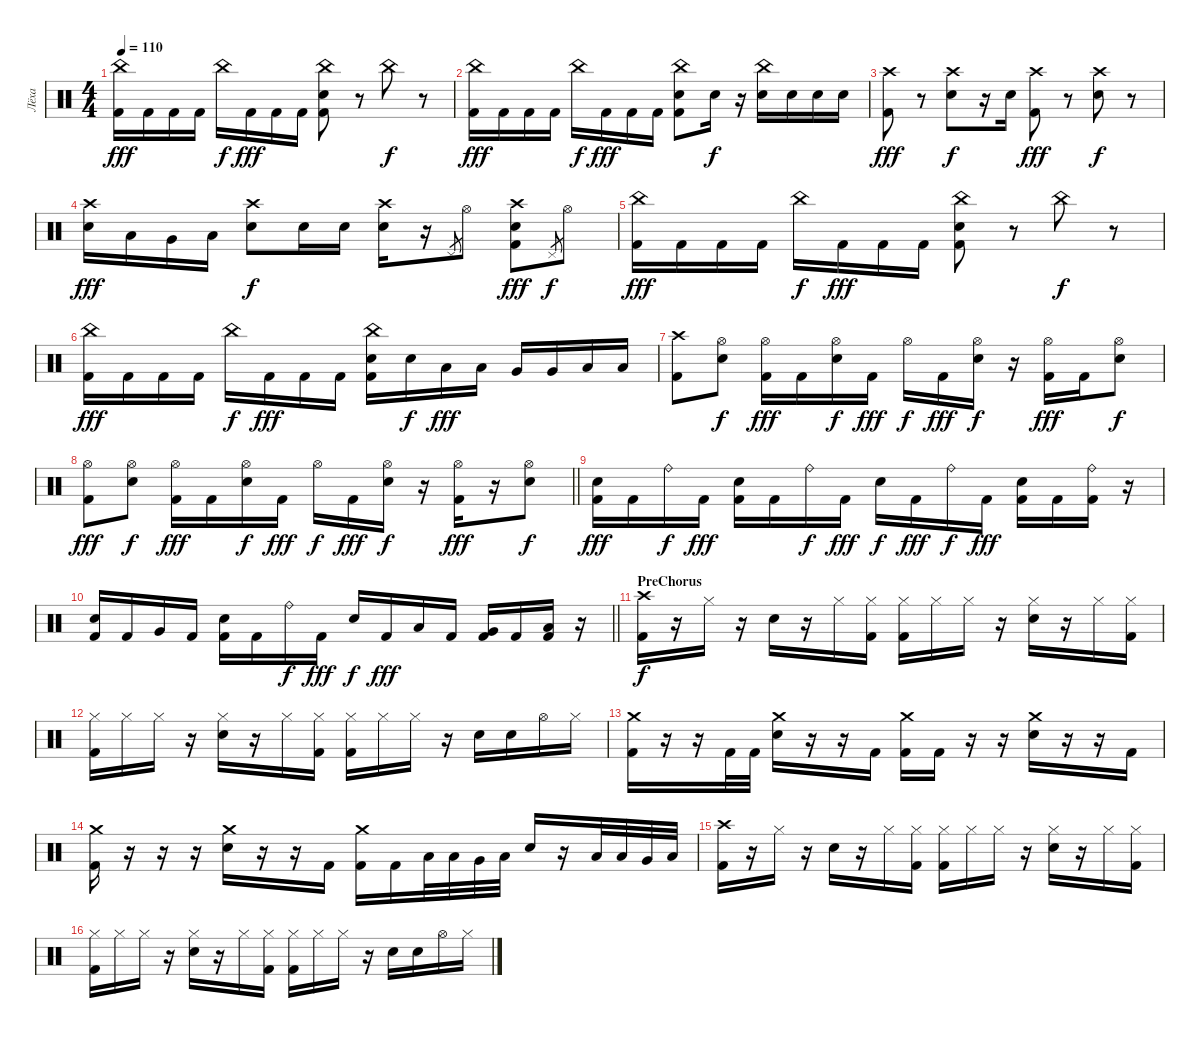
\track ("Лёха" "Лёха") {instrument percussion}
\staff {score}
\articulation defaults
\ts (4 4)
\tempo 110
\clef neutral
\ks c
("China (hit)" "Kick (hit) 2").16{dy fff} "Kick (hit) 2".16 "Kick (hit) 2".16 "Kick (hit) 2".16 "China (hit)".16{dy f} "Kick (hit) 2".16{dy fff} "Kick (hit) 2".16 "Kick (hit) 2".16 ("China (hit)" "Electric Snare (hit)" "Kick (hit) 2").8 r.8 "China (hit)".8{dy f} r.8 |
("China (hit)" "Kick (hit) 2").16{dy fff} "Kick (hit) 2".16 "Kick (hit) 2".16 "Kick (hit) 2".16 "China (hit)".16{dy f} "Kick (hit) 2".16{dy fff} "Kick (hit) 2".16 "Kick (hit) 2".16 ("China (hit)" "Electric Snare (hit)" "Kick (hit) 2").8 "Electric Snare (hit)".16{dy f} r.16 ("China (hit)" "Electric Snare (hit)").16 "Electric Snare (hit)".16 "Electric Snare (hit)".16 "Electric Snare (hit)".16 |
("Crash high (hit)" "Kick (hit) 2").8{dy fff} r.8 ("Crash high (hit)" "Electric Snare (hit)").8{dy f} r.16 "Electric Snare (hit)".16 ("Crash high (hit)" "Kick (hit) 2").8{dy fff} r.8 ("Crash high (hit)" "Electric Snare (hit)").8{dy f} r.8 |
("Crash high (hit)" "Electric Snare (hit)").16{dy fff} "Low Tom (hit)".16 "Very Low Tom (hit)".16 "Low Floor Tom (hit)".16 ("Crash high (hit)" "Electric Snare (hit)").8{dy f} "Electric Snare (hit)".16 "Electric Snare (hit)".16 ("Crash high (hit)" "Electric Snare (hit)").16 r.16 "Pedal Hi-Hat (hit)".8{gr} "Hi-Hat (open)".8 ("Crash high (hit)" "Electric Snare (hit)" "Kick (hit) 2").8{dy fff} "Pedal Hi-Hat (hit)".8{gr dy f} "Hi-Hat (open)".8 |
("China (hit)" "Kick (hit) 2").16{dy fff} "Kick (hit) 2".16 "Kick (hit) 2".16 "Kick (hit) 2".16 "China (hit)".16{dy f} "Kick (hit) 2".16{dy fff} "Kick (hit) 2".16 "Kick (hit) 2".16 ("China (hit)" "Electric Snare (hit)" "Kick (hit) 2").8 r.8 "China (hit)".8{dy f} r.8 |
("China (hit)" "Kick (hit) 2").16{dy fff} "Kick (hit) 2".16 "Kick (hit) 2".16 "Kick (hit) 2".16 "China (hit)".16{dy f} "Kick (hit) 2".16{dy fff} "Kick (hit) 2".16 "Kick (hit) 2".16 ("China (hit)" "Electric Snare (hit)" "Kick (hit) 2").16 "Electric Snare (hit)".16{dy f} "Low Tom (hit)".16{dy fff} "Low Tom (hit)".16 "Very Low Tom (hit)".16 "Very Low Tom (hit)".16 "Low Floor Tom (hit)".16 "Low Floor Tom (hit)".16 |
("Crash high (hit)" "Kick (hit) 2").8 ("Hi-Hat (open)" "Electric Snare (hit)").8{dy f} ("Hi-Hat (open)" "Kick (hit) 2").16{dy fff} "Kick (hit) 2".16 ("Hi-Hat (open)" "Electric Snare (hit)").16{dy f} "Kick (hit) 2".16{dy fff} "Hi-Hat (open)".16{dy f} "Kick (hit) 2".16{dy fff} ("Hi-Hat (open)" "Electric Snare (hit)").16{dy f} r.16 ("Hi-Hat (open)" "Kick (hit) 2").16{dy fff} "Kick (hit) 2".16 ("Hi-Hat (open)" "Electric Snare (hit)").8{dy f} |
\barLineRight lightlight
("Hi-Hat (open)" "Kick (hit) 2").8{dy fff} ("Hi-Hat (open)" "Electric Snare (hit)").8{dy f} ("Hi-Hat (open)" "Kick (hit) 2").16{dy fff} "Kick (hit) 2".16 ("Hi-Hat (open)" "Electric Snare (hit)").16{dy f} "Kick (hit) 2".16{dy fff} "Hi-Hat (open)".16{dy f} "Kick (hit) 2".16{dy fff} ("Hi-Hat (open)" "Electric Snare (hit)").16{dy f} r.16 ("Hi-Hat (open)" "Kick (hit) 2").16{dy fff} r.16 ("Hi-Hat (open)" "Electric Snare (hit)").8{dy f} |
\section ("" "")
("Electric Snare (hit)" "Kick (hit) 2").16{dy fff} "Kick (hit) 2".16 "Ride (bell)".16{dy f} "Kick (hit) 2".16{dy fff} ("Electric Snare (hit)" "Kick (hit) 2").16 "Kick (hit) 2".16 "Ride (bell)".16{dy f} "Kick (hit) 2".16{dy fff} "Electric Snare (hit)".16{dy f} "Kick (hit) 2".16{dy fff} "Ride (bell)".16{dy f} "Kick (hit) 2".16{dy fff} ("Electric Snare (hit)" "Kick (hit) 2").16 "Kick (hit) 2".16 ("Ride (bell)" "Kick (hit) 2").16 r.16 |
\barLineRight lightlight
("Electric Snare (hit)" "Kick (hit) 2").16 "Kick (hit) 2".16 "Very Low Tom (hit)".16 "Kick (hit) 2".16 ("Electric Snare (hit)" "Kick (hit) 2").16 "Kick (hit) 2".16 "Ride (bell)".16{dy f} "Kick (hit) 2".16{dy fff} "Electric Snare (hit)".16{dy f} "Kick (hit) 2".16{dy fff} "Low Tom (hit)".16 "Kick (hit) 2".16 ("Very Low Tom (hit)" "Kick (hit) 2").16 "Kick (hit) 2".16 ("Low Floor Tom (hit)" "Kick (hit) 2").16 r.16 |
\section ("" "PreChorus")
("Crash high (hit)" "Kick (hit) 2").16{dy f} r.16 "Hi-Hat (closed)".16 r.16 "Electric Snare (hit)".16 r.16 "Hi-Hat (closed)".16 ("Hi-Hat (closed)" "Kick (hit) 2").16 ("Hi-Hat (closed)" "Kick (hit) 2").16 "Hi-Hat (closed)".16 "Hi-Hat (closed)".16 r.16 ("Hi-Hat (closed)" "Electric Snare (hit)").16 r.16 "Hi-Hat (closed)".16 ("Hi-Hat (closed)" "Kick (hit) 2").16 |
("Hi-Hat (closed)" "Kick (hit) 2").16 "Hi-Hat (closed)".16 "Hi-Hat (closed)".16 r.16 ("Hi-Hat (closed)" "Electric Snare (hit)").16 r.16 "Hi-Hat (closed)".16 ("Hi-Hat (closed)" "Kick (hit) 2").16 ("Hi-Hat (closed)" "Kick (hit) 2").16 "Hi-Hat (closed)".16 "Hi-Hat (closed)".16 r.16 "Electric Snare (hit)".16 "Electric Snare (hit)".16 "Hi-Hat (open)".16 "Hi-Hat (closed)".16 |
("Crash medium (hit)" "Kick (hit) 2").16 r.16 r.16 "Kick (hit) 2".32 "Kick (hit) 2".32 ("Crash medium (hit)" "Electric Snare (hit)").16 r.16 r.16 "Kick (hit) 2".16 ("Crash medium (hit)" "Kick (hit) 2").16 "Kick (hit) 2".16 r.16 r.16 ("Crash medium (hit)" "Electric Snare (hit)").16 r.16 r.16 "Kick (hit) 2".16 |
("Crash medium (hit)" "Kick (hit) 2").16 r.16 r.16 r.16 ("Crash medium (hit)" "Electric Snare (hit)").16 r.16 r.16 "Kick (hit) 2".16 ("Crash medium (hit)" "Kick (hit) 2").16 "Kick (hit) 2".16 "Low Tom (hit)".32 "Low Tom (hit)".32 "Very Low Tom (hit)".32 "Low Floor Tom (hit)".32 "Electric Snare (hit)".16 r.16 "Low Tom (hit)".32 "Low Tom (hit)".32 "Very Low Tom (hit)".32 "Low Floor Tom (hit)".32 |
("Crash high (hit)" "Kick (hit) 2").16 r.16 "Hi-Hat (closed)".16 r.16 "Electric Snare (hit)".16 r.16 "Hi-Hat (closed)".16 ("Hi-Hat (closed)" "Kick (hit) 2").16 ("Hi-Hat (closed)" "Kick (hit) 2").16 "Hi-Hat (closed)".16 "Hi-Hat (closed)".16 r.16 ("Hi-Hat (closed)" "Electric Snare (hit)").16 r.16 "Hi-Hat (closed)".16 ("Hi-Hat (closed)" "Kick (hit) 2").16 |
("Hi-Hat (closed)" "Kick (hit) 2").16 "Hi-Hat (closed)".16 "Hi-Hat (closed)".16 r.16 ("Hi-Hat (closed)" "Electric Snare (hit)").16 r.16 "Hi-Hat (closed)".16 ("Hi-Hat (closed)" "Kick (hit) 2").16 ("Hi-Hat (closed)" "Kick (hit) 2").16 "Hi-Hat (closed)".16 "Hi-Hat (closed)".16 r.16 "Electric Snare (hit)".16 "Electric Snare (hit)".16 "Hi-Hat (open)".16 "Hi-Hat (closed)".16
